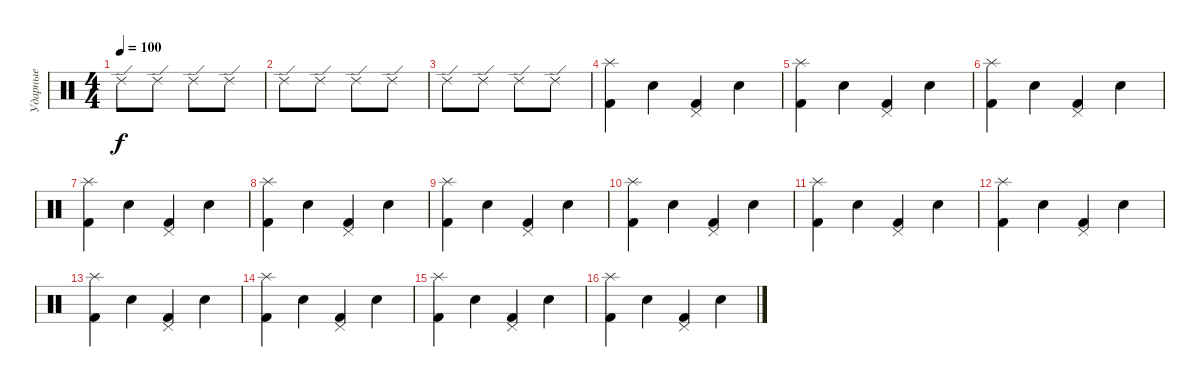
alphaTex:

\track ("Ударные" "Ударные") {instrument percussion}
\staff {score}
\articulation defaults
\ts (4 4)
\tempo 100
\clef neutral
\ks c "Ride (edge) 2".8{dy f} "Ride (edge) 2".8 "Ride (edge) 2".8 "Ride (edge) 2".8
|
"Ride (edge) 2".8 "Ride (edge) 2".8 "Ride (edge) 2".8 "Ride (edge) 2".8 |
"Ride (edge) 2".8 "Ride (edge) 2".8 "Ride (edge) 2".8 "Ride (edge) 2".8 |
("Splash (hit)" "Kick (hit) 2").4 "Snare (hit) 2".4 ("Pedal Hi-Hat (hit)" "Kick (hit) 2").4 "Snare (hit) 2".4 |
("Splash (hit)" "Kick (hit) 2").4 "Snare (hit) 2".4 ("Pedal Hi-Hat (hit)" "Kick (hit) 2").4 "Snare (hit) 2".4 |
("Splash (hit)" "Kick (hit) 2").4 "Snare (hit) 2".4 ("Pedal Hi-Hat (hit)" "Kick (hit) 2").4 "Snare (hit) 2".4 |
("Splash (hit)" "Kick (hit) 2").4 "Snare (hit) 2".4 ("Pedal Hi-Hat (hit)" "Kick (hit) 2").4 "Snare (hit) 2".4 |
("Splash (hit)" "Kick (hit) 2").4 "Snare (hit) 2".4 ("Pedal Hi-Hat (hit)" "Kick (hit) 2").4 "Snare (hit) 2".4 |
("Splash (hit)" "Kick (hit) 2").4 "Snare (hit) 2".4 ("Pedal Hi-Hat (hit)" "Kick (hit) 2").4 "Snare (hit) 2".4 |
("Splash (hit)" "Kick (hit) 2").4 "Snare (hit) 2".4 ("Pedal Hi-Hat (hit)" "Kick (hit) 2").4 "Snare (hit) 2".4 |
("Splash (hit)" "Kick (hit) 2").4 "Snare (hit) 2".4 ("Pedal Hi-Hat (hit)" "Kick (hit) 2").4 "Snare (hit) 2".4 |
("Splash (hit)" "Kick (hit) 2").4 "Snare (hit) 2".4 ("Pedal Hi-Hat (hit)" "Kick (hit) 2").4 "Snare (hit) 2".4 |
("Splash (hit)" "Kick (hit) 2").4 "Snare (hit) 2".4 ("Pedal Hi-Hat (hit)" "Kick (hit) 2").4 "Snare (hit) 2".4 |
("Splash (hit)" "Kick (hit) 2").4 "Snare (hit) 2".4 ("Pedal Hi-Hat (hit)" "Kick (hit) 2").4 "Snare (hit) 2".4 |
("Splash (hit)" "Kick (hit) 2").4 "Snare (hit) 2".4 ("Pedal Hi-Hat (hit)" "Kick (hit) 2").4 "Snare (hit) 2".4 |
("Splash (hit)" "Kick (hit) 2").4 "Snare (hit) 2".4 ("Pedal Hi-Hat (hit)" "Kick (hit) 2").4 "Snare (hit) 2".4
